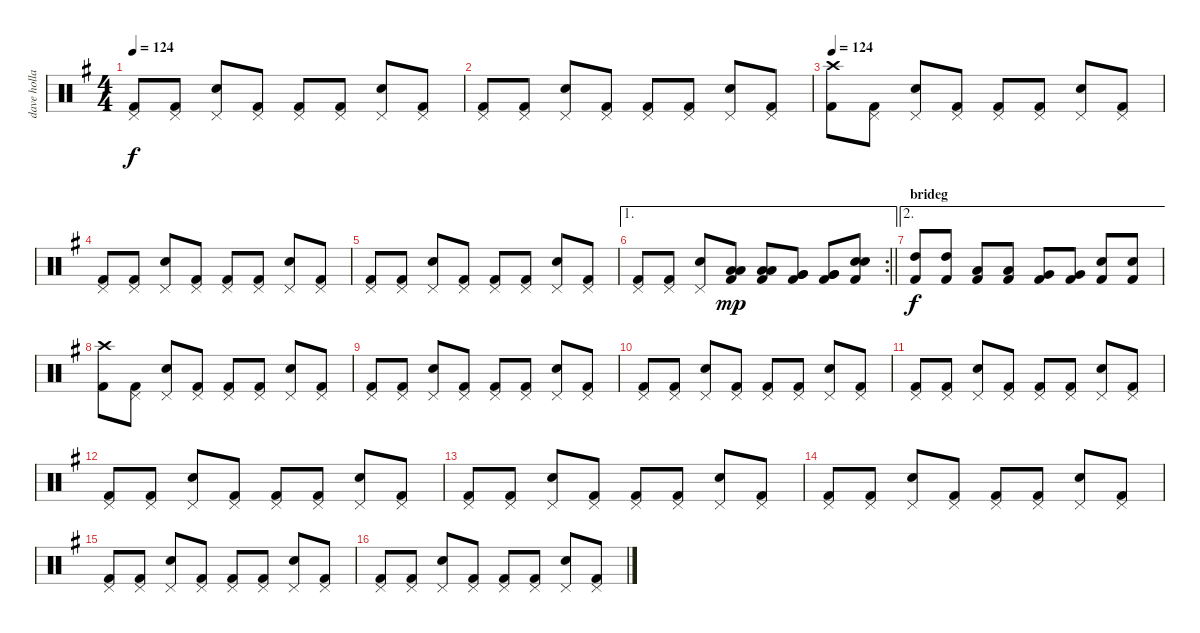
\track ("dave holland" "dave holla") {instrument percussion}
\staff {score}
\articulation defaults
\ts (4 4)
\tempo 124
\clef neutral
\ks g
("Pedal Hi-Hat (hit)" "Kick (hit) 2").8{dy f} ("Pedal Hi-Hat (hit)" "Kick (hit) 2").8 ("Pedal Hi-Hat (hit)" "Snare (hit) 2").8 ("Pedal Hi-Hat (hit)" "Kick (hit) 2").8 ("Pedal Hi-Hat (hit)" "Kick (hit) 2").8 ("Pedal Hi-Hat (hit)" "Kick (hit) 2").8 ("Pedal Hi-Hat (hit)" "Snare (hit) 2").8 ("Pedal Hi-Hat (hit)" "Kick (hit) 2").8 |
("Pedal Hi-Hat (hit)" "Kick (hit) 2").8 ("Pedal Hi-Hat (hit)" "Kick (hit) 2").8 ("Pedal Hi-Hat (hit)" "Snare (hit) 2").8 ("Pedal Hi-Hat (hit)" "Kick (hit) 2").8 ("Pedal Hi-Hat (hit)" "Kick (hit) 2").8 ("Pedal Hi-Hat (hit)" "Kick (hit) 2").8 ("Pedal Hi-Hat (hit)" "Snare (hit) 2").8 ("Pedal Hi-Hat (hit)" "Kick (hit) 2").8 |
\tempo 124
("Crash high (hit)" "Kick (hit) 2").8 ("Pedal Hi-Hat (hit)" "Kick (hit) 2").8 ("Pedal Hi-Hat (hit)" "Snare (hit) 2").8 ("Pedal Hi-Hat (hit)" "Kick (hit) 2").8 ("Pedal Hi-Hat (hit)" "Kick (hit) 2").8 ("Pedal Hi-Hat (hit)" "Kick (hit) 2").8 ("Pedal Hi-Hat (hit)" "Snare (hit) 2").8 ("Pedal Hi-Hat (hit)" "Kick (hit) 2").8 |
("Pedal Hi-Hat (hit)" "Kick (hit) 2").8 ("Pedal Hi-Hat (hit)" "Kick (hit) 2").8 ("Pedal Hi-Hat (hit)" "Snare (hit) 2").8 ("Pedal Hi-Hat (hit)" "Kick (hit) 2").8 ("Pedal Hi-Hat (hit)" "Kick (hit) 2").8 ("Pedal Hi-Hat (hit)" "Kick (hit) 2").8 ("Pedal Hi-Hat (hit)" "Snare (hit) 2").8 ("Pedal Hi-Hat (hit)" "Kick (hit) 2").8 |
("Pedal Hi-Hat (hit)" "Kick (hit) 2").8 ("Pedal Hi-Hat (hit)" "Kick (hit) 2").8 ("Pedal Hi-Hat (hit)" "Snare (hit) 2").8 ("Pedal Hi-Hat (hit)" "Kick (hit) 2").8 ("Pedal Hi-Hat (hit)" "Kick (hit) 2").8 ("Pedal Hi-Hat (hit)" "Kick (hit) 2").8 ("Pedal Hi-Hat (hit)" "Snare (hit) 2").8 ("Pedal Hi-Hat (hit)" "Kick (hit) 2").8 |
\ae 1
\rc 2
\barLineRight lightlight
("Pedal Hi-Hat (hit)" "Kick (hit) 2").8 ("Pedal Hi-Hat (hit)" "Kick (hit) 2").8 ("Pedal Hi-Hat (hit)" "Snare (hit) 2").8 ("Low Tom (hit)" "Low Tom (hit)" "Kick (hit) 2").8{dy mp} ("Low Tom (hit)" "Low Tom (hit)" "Kick (hit) 2").8 ("Very Low Tom (hit)" "Very Low Tom (hit)" "Kick (hit) 2").8 ("Very Low Tom (hit)" "Very Low Tom (hit)" "Kick (hit) 2").8 ("Electric Snare (hit)" "Electric Snare (hit)" "Kick (hit) 2").8 |
\ae 2
\section ("" "brideg")
("High Tom (hit)" "Kick (hit) 2").8{dy f} ("High Tom (hit)" "Kick (hit) 2").8 ("Low Tom (hit)" "Kick (hit) 2").8 ("Low Tom (hit)" "Kick (hit) 2").8 ("Very Low Tom (hit)" "Kick (hit) 2").8 ("Very Low Tom (hit)" "Kick (hit) 2").8 ("Electric Snare (hit)" "Kick (hit) 2").8 ("Electric Snare (hit)" "Kick (hit) 2").8 |
("Crash high (hit)" "Kick (hit) 2").8 ("Pedal Hi-Hat (hit)" "Kick (hit) 2").8 ("Pedal Hi-Hat (hit)" "Snare (hit) 2").8 ("Pedal Hi-Hat (hit)" "Kick (hit) 2").8 ("Pedal Hi-Hat (hit)" "Kick (hit) 2").8 ("Pedal Hi-Hat (hit)" "Kick (hit) 2").8 ("Pedal Hi-Hat (hit)" "Snare (hit) 2").8 ("Pedal Hi-Hat (hit)" "Kick (hit) 2").8 |
("Pedal Hi-Hat (hit)" "Kick (hit) 2").8 ("Pedal Hi-Hat (hit)" "Kick (hit) 2").8 ("Pedal Hi-Hat (hit)" "Snare (hit) 2").8 ("Pedal Hi-Hat (hit)" "Kick (hit) 2").8 ("Pedal Hi-Hat (hit)" "Kick (hit) 2").8 ("Pedal Hi-Hat (hit)" "Kick (hit) 2").8 ("Pedal Hi-Hat (hit)" "Snare (hit) 2").8 ("Pedal Hi-Hat (hit)" "Kick (hit) 2").8 |
("Pedal Hi-Hat (hit)" "Kick (hit) 2").8 ("Pedal Hi-Hat (hit)" "Kick (hit) 2").8 ("Pedal Hi-Hat (hit)" "Snare (hit) 2").8 ("Pedal Hi-Hat (hit)" "Kick (hit) 2").8 ("Pedal Hi-Hat (hit)" "Kick (hit) 2").8 ("Pedal Hi-Hat (hit)" "Kick (hit) 2").8 ("Pedal Hi-Hat (hit)" "Snare (hit) 2").8 ("Pedal Hi-Hat (hit)" "Kick (hit) 2").8 |
("Pedal Hi-Hat (hit)" "Kick (hit) 2").8 ("Pedal Hi-Hat (hit)" "Kick (hit) 2").8 ("Pedal Hi-Hat (hit)" "Snare (hit) 2").8 ("Pedal Hi-Hat (hit)" "Kick (hit) 2").8 ("Pedal Hi-Hat (hit)" "Kick (hit) 2").8 ("Pedal Hi-Hat (hit)" "Kick (hit) 2").8 ("Pedal Hi-Hat (hit)" "Snare (hit) 2").8 ("Pedal Hi-Hat (hit)" "Kick (hit) 2").8 |
("Pedal Hi-Hat (hit)" "Kick (hit) 2").8 ("Pedal Hi-Hat (hit)" "Kick (hit) 2").8 ("Pedal Hi-Hat (hit)" "Snare (hit) 2").8 ("Pedal Hi-Hat (hit)" "Kick (hit) 2").8 ("Pedal Hi-Hat (hit)" "Kick (hit) 2").8 ("Pedal Hi-Hat (hit)" "Kick (hit) 2").8 ("Pedal Hi-Hat (hit)" "Snare (hit) 2").8 ("Pedal Hi-Hat (hit)" "Kick (hit) 2").8 |
("Pedal Hi-Hat (hit)" "Kick (hit) 2").8 ("Pedal Hi-Hat (hit)" "Kick (hit) 2").8 ("Pedal Hi-Hat (hit)" "Snare (hit) 2").8 ("Pedal Hi-Hat (hit)" "Kick (hit) 2").8 ("Pedal Hi-Hat (hit)" "Kick (hit) 2").8 ("Pedal Hi-Hat (hit)" "Kick (hit) 2").8 ("Pedal Hi-Hat (hit)" "Snare (hit) 2").8 ("Pedal Hi-Hat (hit)" "Kick (hit) 2").8 |
("Pedal Hi-Hat (hit)" "Kick (hit) 2").8 ("Pedal Hi-Hat (hit)" "Kick (hit) 2").8 ("Pedal Hi-Hat (hit)" "Snare (hit) 2").8 ("Pedal Hi-Hat (hit)" "Kick (hit) 2").8 ("Pedal Hi-Hat (hit)" "Kick (hit) 2").8 ("Pedal Hi-Hat (hit)" "Kick (hit) 2").8 ("Pedal Hi-Hat (hit)" "Snare (hit) 2").8 ("Pedal Hi-Hat (hit)" "Kick (hit) 2").8 |
("Pedal Hi-Hat (hit)" "Kick (hit) 2").8 ("Pedal Hi-Hat (hit)" "Kick (hit) 2").8 ("Pedal Hi-Hat (hit)" "Snare (hit) 2").8 ("Pedal Hi-Hat (hit)" "Kick (hit) 2").8 ("Pedal Hi-Hat (hit)" "Kick (hit) 2").8 ("Pedal Hi-Hat (hit)" "Kick (hit) 2").8 ("Pedal Hi-Hat (hit)" "Snare (hit) 2").8 ("Pedal Hi-Hat (hit)" "Kick (hit) 2").8 |
("Pedal Hi-Hat (hit)" "Kick (hit) 2").8 ("Pedal Hi-Hat (hit)" "Kick (hit) 2").8 ("Pedal Hi-Hat (hit)" "Snare (hit) 2").8 ("Pedal Hi-Hat (hit)" "Kick (hit) 2").8 ("Pedal Hi-Hat (hit)" "Kick (hit) 2").8 ("Pedal Hi-Hat (hit)" "Kick (hit) 2").8 ("Pedal Hi-Hat (hit)" "Snare (hit) 2").8 ("Pedal Hi-Hat (hit)" "Kick (hit) 2").8
